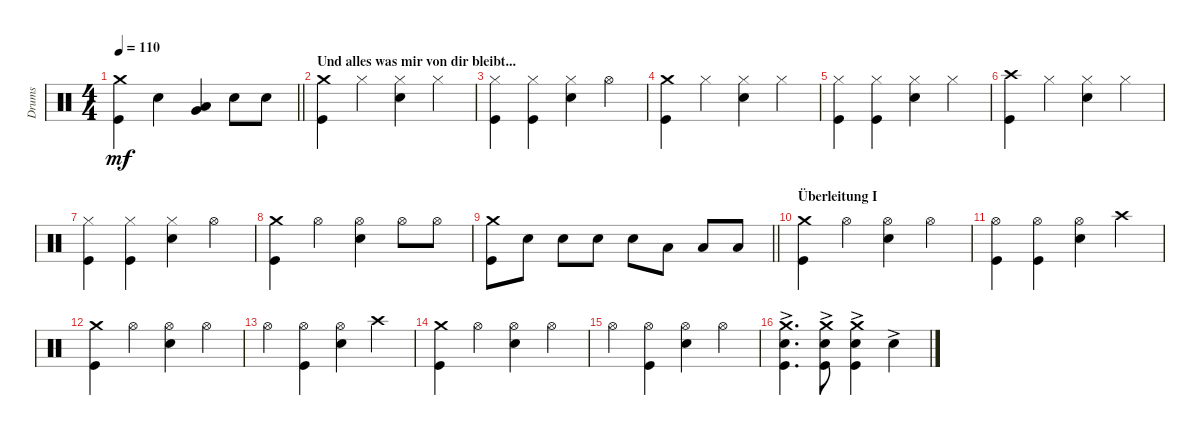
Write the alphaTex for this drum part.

\track ("Drums" "Drums") {instrument percussion}
\staff {score}
\articulation defaults
\ts (4 4)
\tempo 110
\clef neutral
\barLineRight lightlight
\ks c
("Crash medium (hit)" "Kick (hit)").4{dy mf} "Snare (hit) 2".4 ("Low Tom (hit)" "Very Low Tom (hit)").4 "Snare (hit) 2".8 "Snare (hit) 2".8 |
\section ("" "Und alles was mir von dir bleibt...")
("Crash medium (hit)" "Kick (hit)").4 "Hi-Hat (closed)".4 ("Hi-Hat (closed)" "Snare (hit) 2").4 "Hi-Hat (closed)".4 |
("Hi-Hat (closed)" "Kick (hit)").4 ("Hi-Hat (closed)" "Kick (hit)").4 ("Hi-Hat (closed)" "Snare (hit) 2").4 "Hi-Hat (open)".4 |
("Crash medium (hit)" "Kick (hit)").4 "Hi-Hat (closed)".4 ("Hi-Hat (closed)" "Snare (hit) 2").4 "Hi-Hat (closed)".4 |
("Hi-Hat (closed)" "Kick (hit)").4 ("Hi-Hat (closed)" "Kick (hit)").4 ("Hi-Hat (closed)" "Snare (hit) 2").4 "Hi-Hat (closed)".4 |
("Kick (hit)" "Crash high (hit)").4 "Hi-Hat (closed)".4 ("Hi-Hat (closed)" "Snare (hit) 2").4 "Hi-Hat (closed)".4 |
("Hi-Hat (closed)" "Kick (hit)").4 ("Hi-Hat (closed)" "Kick (hit)").4 ("Hi-Hat (closed)" "Snare (hit) 2").4 "Hi-Hat (open)".4 |
("Crash medium (hit)" "Kick (hit)").4 "Hi-Hat (open)".4 ("Hi-Hat (open)" "Snare (hit) 2").4 "Hi-Hat (open)".8 "Hi-Hat (open)".8 |
\barLineRight lightlight
("Crash medium (hit)" "Kick (hit)").8 "Snare (hit) 2".8 "Snare (hit) 2".8 "Snare (hit) 2".8 "Snare (hit) 2".8 "Low Tom (hit)".8 "Low Tom (hit)".8 "Low Tom (hit)".8 |
\section ("" "Überleitung I")
("Crash medium (hit)" "Kick (hit)").4 "Hi-Hat (open)".4 ("Hi-Hat (open)" "Snare (hit) 2").4 "Hi-Hat (open)".4 |
("Hi-Hat (open)" "Kick (hit)").4 ("Hi-Hat (open)" "Kick (hit)").4 ("Hi-Hat (open)" "Snare (hit) 2").4 "Crash high (hit)".4 |
("Kick (hit)" "Crash medium (hit)").4 "Hi-Hat (open)".4 ("Hi-Hat (open)" "Snare (hit) 2").4 "Hi-Hat (open)".4 |
"Hi-Hat (open)".4 ("Hi-Hat (open)" "Kick (hit)").4 ("Hi-Hat (open)" "Snare (hit) 2").4 "Crash high (hit)".4 |
("Crash medium (hit)" "Kick (hit)").4 "Hi-Hat (open)".4 ("Hi-Hat (open)" "Snare (hit) 2").4 "Hi-Hat (open)".4 |
"Hi-Hat (open)".4 ("Hi-Hat (open)" "Kick (hit)").4 ("Hi-Hat (open)" "Snare (hit) 2").4 "Hi-Hat (open)".4 |
("Crash medium (hit)"{ac} "Kick (hit)"{ac} "Snare (hit) 2"{ac}).4{d} ("Crash medium (hit)"{ac} "Kick (hit)"{ac} "Snare (hit) 2"{ac}).8 ("Crash medium (hit)"{ac} "Kick (hit)"{ac} "Snare (hit) 2"{ac}).4 "Snare (hit) 2"{ac}.4
